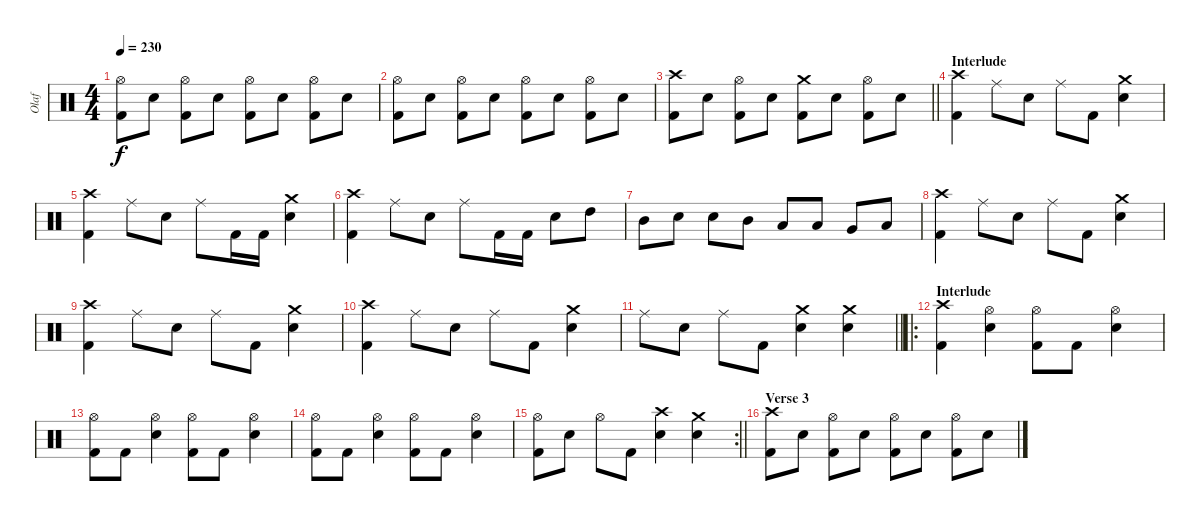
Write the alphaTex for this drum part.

\track ("Olaf" "Olaf") {instrument percussion}
\staff {score}
\articulation defaults
\ts (4 4)
\tempo 230
\clef neutral
\ks c
("Hi-Hat (open)" "Kick (hit) 2").8{dy f} "Electric Snare (hit)".8 ("Hi-Hat (open)" "Kick (hit) 2").8 "Electric Snare (hit)".8 ("Hi-Hat (open)" "Kick (hit) 2").8 "Electric Snare (hit)".8 ("Hi-Hat (open)" "Kick (hit) 2").8 "Electric Snare (hit)".8 |
("Hi-Hat (open)" "Kick (hit) 2").8 "Electric Snare (hit)".8 ("Hi-Hat (open)" "Kick (hit) 2").8 "Electric Snare (hit)".8 ("Hi-Hat (open)" "Kick (hit) 2").8 "Electric Snare (hit)".8 ("Hi-Hat (open)" "Kick (hit) 2").8 "Electric Snare (hit)".8 |
\barLineRight lightlight
("Crash high (hit)" "Kick (hit) 2").8 "Electric Snare (hit)".8 ("Hi-Hat (open)" "Kick (hit) 2").8 "Electric Snare (hit)".8 ("Crash medium (hit)" "Kick (hit) 2").8 "Electric Snare (hit)".8 ("Hi-Hat (open)" "Kick (hit) 2").8 "Electric Snare (hit)".8 |
\section ("" "Interlude")
("Crash high (hit)" "Kick (hit) 2").4 "Ride (middle)".8 "Electric Snare (hit)".8 "Ride (middle)".8 "Kick (hit) 2".8 ("Crash medium (hit)" "Electric Snare (hit)").4 |
("Crash high (hit)" "Kick (hit) 2").4 "Ride (middle)".8 "Electric Snare (hit)".8 "Ride (middle)".8 "Kick (hit) 2".16 "Kick (hit) 2".16 ("Crash medium (hit)" "Electric Snare (hit)").4 |
("Crash high (hit)" "Kick (hit) 2").4 "Ride (middle)".8 "Electric Snare (hit)".8 "Ride (middle)".8 "Kick (hit) 2".16 "Kick (hit) 2".16 "Electric Snare (hit)".8 "High Tom (hit)".8 |
"Mid Tom (hit)".8 "Electric Snare (hit)".8 "Electric Snare (hit)".8 "Mid Tom (hit)".8 "Low Tom (hit)".8 "Low Tom (hit)".8 "Very Low Tom (hit)".8 "Low Floor Tom (hit)".8 |
("Crash high (hit)" "Kick (hit) 2").4 "Ride (middle)".8 "Electric Snare (hit)".8 "Ride (middle)".8 "Kick (hit) 2".8 ("Crash medium (hit)" "Electric Snare (hit)").4 |
("Crash high (hit)" "Kick (hit) 2").4 "Ride (middle)".8 "Electric Snare (hit)".8 "Ride (middle)".8 "Kick (hit) 2".8 ("Crash medium (hit)" "Electric Snare (hit)").4 |
("Crash high (hit)" "Kick (hit) 2").4 "Ride (middle)".8 "Electric Snare (hit)".8 "Ride (middle)".8 "Kick (hit) 2".8 ("Crash medium (hit)" "Electric Snare (hit)").4 |
\barLineRight lightlight "Ride (middle)".8 "Electric Snare (hit)".8 "Ride (middle)".8 "Kick (hit) 2".8
("Crash medium (hit)" "Electric Snare (hit)").4 ("Crash medium (hit)" "Electric Snare (hit)").4 |
\ro
\section ("" "Interlude")
("Crash high (hit)" "Kick (hit) 2").4 ("Hi-Hat (open)" "Electric Snare (hit)").4 ("Hi-Hat (open)" "Kick (hit) 2").8 "Kick (hit) 2".8 ("Hi-Hat (open)" "Electric Snare (hit)").4 |
("Hi-Hat (open)" "Kick (hit) 2").8 "Kick (hit) 2".8 ("Hi-Hat (open)" "Electric Snare (hit)").4 ("Hi-Hat (open)" "Kick (hit) 2").8 "Kick (hit) 2".8 ("Hi-Hat (open)" "Electric Snare (hit)").4 |
("Hi-Hat (open)" "Kick (hit) 2").8 "Kick (hit) 2".8 ("Hi-Hat (open)" "Electric Snare (hit)").4 ("Hi-Hat (open)" "Kick (hit) 2").8 "Kick (hit) 2".8 ("Hi-Hat (open)" "Electric Snare (hit)").4 |
\rc 2
\barLineRight lightlight
("Hi-Hat (open)" "Kick (hit) 2").8 "Electric Snare (hit)".8 "Hi-Hat (open)".8 "Kick (hit) 2".8 ("Crash high (hit)" "Electric Snare (hit)").4 ("Crash medium (hit)" "Electric Snare (hit)").4 |
\section ("" "Verse 3")
("Crash high (hit)" "Kick (hit) 2").8 "Electric Snare (hit)".8 ("Hi-Hat (open)" "Kick (hit) 2").8 "Electric Snare (hit)".8 ("Hi-Hat (open)" "Kick (hit) 2").8 "Electric Snare (hit)".8 ("Hi-Hat (open)" "Kick (hit) 2").8 "Electric Snare (hit)".8
